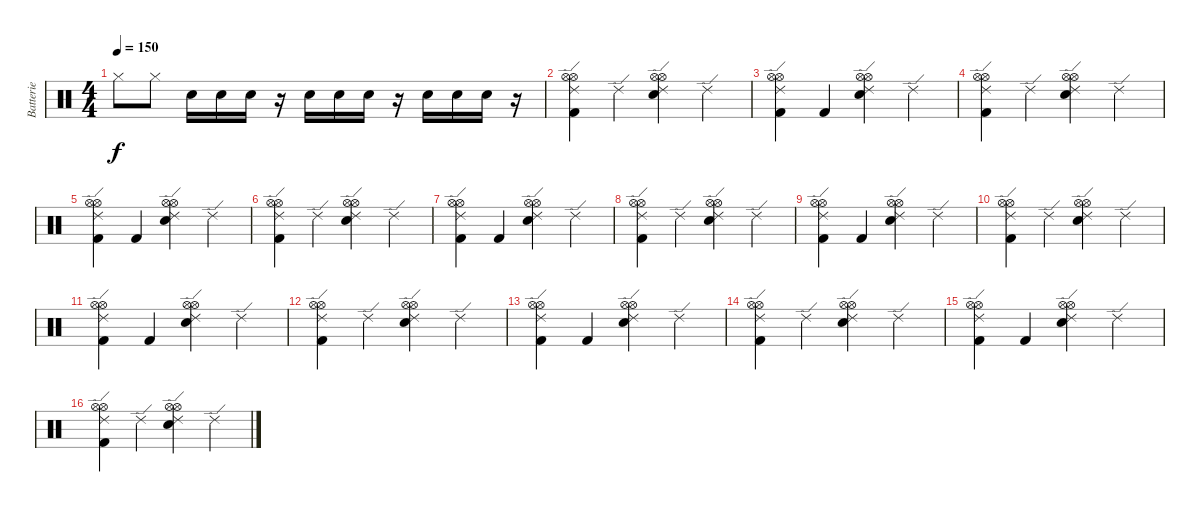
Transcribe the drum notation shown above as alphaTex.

\track ("Batterie" "Batterie") {instrument percussion}
\staff {score}
\articulation defaults
\ts (4 4)
\tempo 150
\clef neutral
\ks c "Hi-Hat (closed)".8{dy f} "Hi-Hat (closed)".8 "Snare (hit) 2".16 "Snare (hit) 2".16 "Snare (hit) 2".16
r.16 "Snare (hit) 2".16 "Snare (hit) 2".16 "Snare (hit) 2".16 r.16 "Snare (hit) 2".16 "Snare (hit) 2".16 "Snare (hit) 2".16 r.16 |
\section ("" "")
("Hi-Hat (open)" "Hi-Hat (open)" "Ride (edge) 2" "Kick (hit) 2").4 "Ride (edge) 2".4 ("Snare (hit) 2" "Hi-Hat (open)" "Hi-Hat (open)" "Ride (edge) 2").4 "Ride (edge) 2".4 |
("Hi-Hat (open)" "Hi-Hat (open)" "Ride (edge) 2" "Kick (hit) 2").4 "Kick (hit) 2".4 ("Snare (hit) 2" "Hi-Hat (open)" "Hi-Hat (open)" "Ride (edge) 2").4 "Ride (edge) 2".4 |
("Hi-Hat (open)" "Hi-Hat (open)" "Ride (edge) 2" "Kick (hit) 2").4 "Ride (edge) 2".4 ("Snare (hit) 2" "Hi-Hat (open)" "Hi-Hat (open)" "Ride (edge) 2").4 "Ride (edge) 2".4 |
("Hi-Hat (open)" "Hi-Hat (open)" "Ride (edge) 2" "Kick (hit) 2").4 "Kick (hit) 2".4 ("Snare (hit) 2" "Hi-Hat (open)" "Hi-Hat (open)" "Ride (edge) 2").4 "Ride (edge) 2".4 |
("Hi-Hat (open)" "Hi-Hat (open)" "Ride (edge) 2" "Kick (hit) 2").4 "Ride (edge) 2".4 ("Snare (hit) 2" "Hi-Hat (open)" "Hi-Hat (open)" "Ride (edge) 2").4 "Ride (edge) 2".4 |
("Hi-Hat (open)" "Hi-Hat (open)" "Ride (edge) 2" "Kick (hit) 2").4 "Kick (hit) 2".4 ("Snare (hit) 2" "Hi-Hat (open)" "Hi-Hat (open)" "Ride (edge) 2").4 "Ride (edge) 2".4 |
("Hi-Hat (open)" "Hi-Hat (open)" "Ride (edge) 2" "Kick (hit) 2").4 "Ride (edge) 2".4 ("Snare (hit) 2" "Hi-Hat (open)" "Hi-Hat (open)" "Ride (edge) 2").4 "Ride (edge) 2".4 |
("Hi-Hat (open)" "Hi-Hat (open)" "Ride (edge) 2" "Kick (hit) 2").4 "Kick (hit) 2".4 ("Snare (hit) 2" "Hi-Hat (open)" "Hi-Hat (open)" "Ride (edge) 2").4 "Ride (edge) 2".4 |
("Hi-Hat (open)" "Hi-Hat (open)" "Ride (edge) 2" "Kick (hit) 2").4 "Ride (edge) 2".4 ("Snare (hit) 2" "Hi-Hat (open)" "Hi-Hat (open)" "Ride (edge) 2").4 "Ride (edge) 2".4 |
("Hi-Hat (open)" "Hi-Hat (open)" "Ride (edge) 2" "Kick (hit) 2").4 "Kick (hit) 2".4 ("Snare (hit) 2" "Hi-Hat (open)" "Hi-Hat (open)" "Ride (edge) 2").4 "Ride (edge) 2".4 |
("Hi-Hat (open)" "Hi-Hat (open)" "Ride (edge) 2" "Kick (hit) 2").4 "Ride (edge) 2".4 ("Snare (hit) 2" "Hi-Hat (open)" "Hi-Hat (open)" "Ride (edge) 2").4 "Ride (edge) 2".4 |
("Hi-Hat (open)" "Hi-Hat (open)" "Ride (edge) 2" "Kick (hit) 2").4 "Kick (hit) 2".4 ("Snare (hit) 2" "Hi-Hat (open)" "Hi-Hat (open)" "Ride (edge) 2").4 "Ride (edge) 2".4 |
("Hi-Hat (open)" "Hi-Hat (open)" "Ride (edge) 2" "Kick (hit) 2").4 "Ride (edge) 2".4 ("Snare (hit) 2" "Hi-Hat (open)" "Hi-Hat (open)" "Ride (edge) 2").4 "Ride (edge) 2".4 |
("Hi-Hat (open)" "Hi-Hat (open)" "Ride (edge) 2" "Kick (hit) 2").4 "Kick (hit) 2".4 ("Snare (hit) 2" "Hi-Hat (open)" "Hi-Hat (open)" "Ride (edge) 2").4 "Ride (edge) 2".4 |
("Hi-Hat (open)" "Hi-Hat (open)" "Ride (edge) 2" "Kick (hit) 2").4 "Ride (edge) 2".4 ("Snare (hit) 2" "Hi-Hat (open)" "Hi-Hat (open)" "Ride (edge) 2").4 "Ride (edge) 2".4
